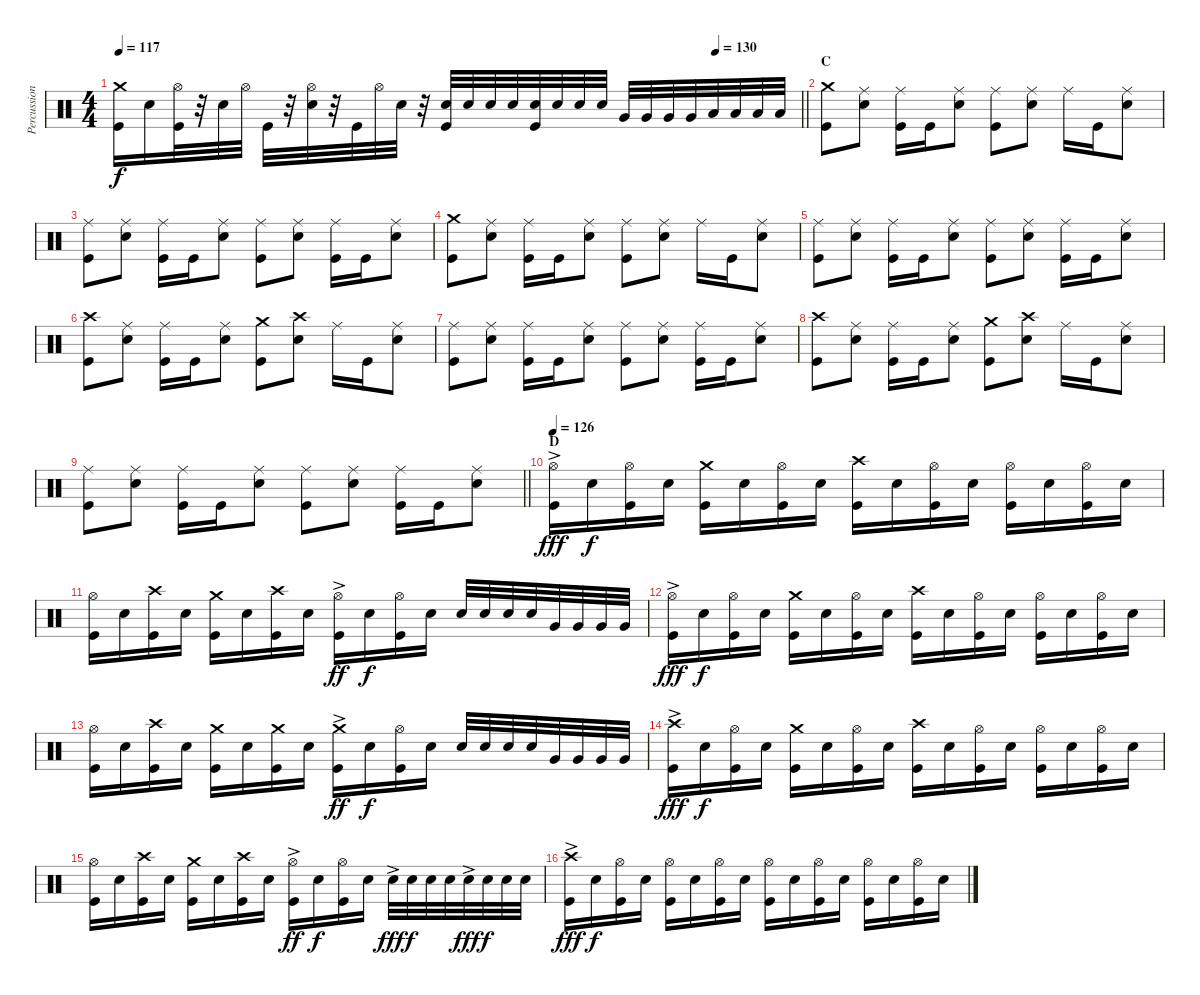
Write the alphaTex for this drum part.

\track ("Percussion" "Percussion") {instrument percussion}
\staff {score}
\articulation defaults
\ts (4 4)
\tempo 117
\tempo (130 0.875)
\clef neutral
\barLineRight lightlight
\ks c
("Kick (hit)" "Crash medium (hit)").16{dy f} "Snare (hit) 2".16 ("Kick (hit)" "Hi-Hat (open)").32 r.32 "Snare (hit) 2".32 "Hi-Hat (open)".32 "Kick (hit)".32 r.32 ("Snare (hit) 2" "Hi-Hat (open)").32 r.32 "Kick (hit)".32 "Hi-Hat (open)".32 "Snare (hit) 2".32 r.32 ("Kick (hit)" "Snare (hit) 2").32 "Snare (hit) 2".32 "Snare (hit) 2".32 "Snare (hit) 2".32 ("Kick (hit)" "Snare (hit) 2").32 "Snare (hit) 2".32 "Snare (hit) 2".32 "Snare (hit) 2".32 "Very Low Tom (hit)".32 "Very Low Tom (hit)".32 "Very Low Tom (hit)".32 "Very Low Tom (hit)".32 "Low Floor Tom (hit)".32 "Low Floor Tom (hit)".32 "Low Floor Tom (hit)".32 "Low Floor Tom (hit)".32 |
\section ("" "C")
("Kick (hit)" "Crash medium (hit)").8 ("Snare (hit) 2" "Ride (middle)").8 ("Kick (hit)" "Ride (middle)").16 "Kick (hit)".16 ("Snare (hit) 2" "Ride (middle)").8 ("Kick (hit)" "Ride (middle)").8 ("Snare (hit) 2" "Ride (middle)").8 "Ride (middle)".16 "Kick (hit)".16 ("Snare (hit) 2" "Ride (middle)").8 |
("Kick (hit)" "Ride (middle)").8 ("Snare (hit) 2" "Ride (middle)").8 ("Kick (hit)" "Ride (middle)").16 "Kick (hit)".16 ("Snare (hit) 2" "Ride (middle)").8 ("Kick (hit)" "Ride (middle)").8 ("Snare (hit) 2" "Ride (middle)").8 ("Kick (hit)" "Ride (middle)").16 "Kick (hit)".16 ("Snare (hit) 2" "Ride (middle)").8 |
("Kick (hit)" "Crash medium (hit)").8 ("Snare (hit) 2" "Ride (middle)").8 ("Kick (hit)" "Ride (middle)").16 "Kick (hit)".16 ("Snare (hit) 2" "Ride (middle)").8 ("Kick (hit)" "Ride (middle)").8 ("Snare (hit) 2" "Ride (middle)").8 "Ride (middle)".16 "Kick (hit)".16 ("Snare (hit) 2" "Ride (middle)").8 |
("Kick (hit)" "Ride (middle)").8 ("Snare (hit) 2" "Ride (middle)").8 ("Kick (hit)" "Ride (middle)").16 "Kick (hit)".16 ("Snare (hit) 2" "Ride (middle)").8 ("Kick (hit)" "Ride (middle)").8 ("Snare (hit) 2" "Ride (middle)").8 ("Kick (hit)" "Ride (middle)").16 "Kick (hit)".16 ("Snare (hit) 2" "Ride (middle)").8 |
("Kick (hit)" "Crash high (hit)").8 ("Snare (hit) 2" "Ride (middle)").8 ("Kick (hit)" "Ride (middle)").16 "Kick (hit)".16 ("Snare (hit) 2" "Ride (middle)").8 ("Kick (hit)" "Crash medium (hit)").8 ("Snare (hit) 2" "Crash high (hit)").8 "Ride (middle)".16 "Kick (hit)".16 ("Snare (hit) 2" "Ride (middle)").8 |
("Kick (hit)" "Ride (middle)").8 ("Snare (hit) 2" "Ride (middle)").8 ("Kick (hit)" "Ride (middle)").16 "Kick (hit)".16 ("Snare (hit) 2" "Ride (middle)").8 ("Kick (hit)" "Ride (middle)").8 ("Snare (hit) 2" "Ride (middle)").8 ("Kick (hit)" "Ride (middle)").16 "Kick (hit)".16 ("Snare (hit) 2" "Ride (middle)").8 |
("Kick (hit)" "Crash high (hit)").8 ("Snare (hit) 2" "Ride (middle)").8 ("Kick (hit)" "Ride (middle)").16 "Kick (hit)".16 ("Snare (hit) 2" "Ride (middle)").8 ("Kick (hit)" "Crash medium (hit)").8 ("Snare (hit) 2" "Crash high (hit)").8 "Ride (middle)".16 "Kick (hit)".16 ("Snare (hit) 2" "Ride (middle)").8 |
\barLineRight lightlight
("Kick (hit)" "Ride (middle)").8 ("Snare (hit) 2" "Ride (middle)").8 ("Kick (hit)" "Ride (middle)").16 "Kick (hit)".16 ("Snare (hit) 2" "Ride (middle)").8 ("Kick (hit)" "Ride (middle)").8 ("Snare (hit) 2" "Ride (middle)").8 ("Kick (hit)" "Ride (middle)").16 "Kick (hit)".16 ("Snare (hit) 2" "Ride (middle)").8 |
\section ("" "D")
\tempo 126
("Kick (hit)" "Hi-Hat (open)"{ac}).16{dy fff} "Snare (hit) 2".16{dy f} ("Kick (hit)" "Hi-Hat (open)").16 "Snare (hit) 2".16 ("Kick (hit)" "Crash medium (hit)").16 "Snare (hit) 2".16 ("Kick (hit)" "Hi-Hat (open)").16 "Snare (hit) 2".16 ("Kick (hit)" "Crash high (hit)").16 "Snare (hit) 2".16 ("Kick (hit)" "Hi-Hat (open)").16 "Snare (hit) 2".16 ("Kick (hit)" "Hi-Hat (open)").16 "Snare (hit) 2".16 ("Kick (hit)" "Hi-Hat (open)").16 "Snare (hit) 2".16 |
("Kick (hit)" "Hi-Hat (open)").16 "Snare (hit) 2".16 ("Kick (hit)" "Crash high (hit)").16 "Snare (hit) 2".16 ("Kick (hit)" "Crash medium (hit)").16 "Snare (hit) 2".16 ("Kick (hit)" "Crash high (hit)").16 "Snare (hit) 2".16 ("Kick (hit)" "Hi-Hat (open)"{ac}).16{dy ff} "Snare (hit) 2".16{dy f} ("Kick (hit)" "Hi-Hat (open)").16 "Snare (hit) 2".16 "Snare (hit) 2".32 "Snare (hit) 2".32 "Snare (hit) 2".32 "Snare (hit) 2".32 "Very Low Tom (hit)".32 "Very Low Tom (hit)".32 "Very Low Tom (hit)".32 "Very Low Tom (hit)".32 |
("Kick (hit)" "Hi-Hat (open)"{ac}).16{dy fff} "Snare (hit) 2".16{dy f} ("Kick (hit)" "Hi-Hat (open)").16 "Snare (hit) 2".16 ("Kick (hit)" "Crash medium (hit)").16 "Snare (hit) 2".16 ("Kick (hit)" "Hi-Hat (open)").16 "Snare (hit) 2".16 ("Kick (hit)" "Crash high (hit)").16 "Snare (hit) 2".16 ("Kick (hit)" "Hi-Hat (open)").16 "Snare (hit) 2".16 ("Kick (hit)" "Hi-Hat (open)").16 "Snare (hit) 2".16 ("Kick (hit)" "Hi-Hat (open)").16 "Snare (hit) 2".16 |
("Kick (hit)" "Hi-Hat (open)").16 "Snare (hit) 2".16 ("Kick (hit)" "Crash high (hit)").16 "Snare (hit) 2".16 ("Kick (hit)" "Crash medium (hit)").16 "Snare (hit) 2".16 ("Kick (hit)" "Crash medium (hit)").16 "Snare (hit) 2".16 ("Kick (hit)" "Crash medium (hit)"{ac}).16{dy ff} "Snare (hit) 2".16{dy f} ("Kick (hit)" "Hi-Hat (open)").16 "Snare (hit) 2".16 "Snare (hit) 2".32 "Snare (hit) 2".32 "Snare (hit) 2".32 "Snare (hit) 2".32 "Very Low Tom (hit)".32 "Very Low Tom (hit)".32 "Very Low Tom (hit)".32 "Very Low Tom (hit)".32 |
("Kick (hit)" "Crash high (hit)"{ac}).16{dy fff} "Snare (hit) 2".16{dy f} ("Kick (hit)" "Hi-Hat (open)").16 "Snare (hit) 2".16 ("Kick (hit)" "Crash medium (hit)").16 "Snare (hit) 2".16 ("Kick (hit)" "Hi-Hat (open)").16 "Snare (hit) 2".16 ("Kick (hit)" "Crash high (hit)").16 "Snare (hit) 2".16 ("Kick (hit)" "Hi-Hat (open)").16 "Snare (hit) 2".16 ("Kick (hit)" "Hi-Hat (open)").16 "Snare (hit) 2".16 ("Kick (hit)" "Hi-Hat (open)").16 "Snare (hit) 2".16 |
("Kick (hit)" "Hi-Hat (open)").16 "Snare (hit) 2".16 ("Kick (hit)" "Crash high (hit)").16 "Snare (hit) 2".16 ("Kick (hit)" "Crash medium (hit)").16 "Snare (hit) 2".16 ("Kick (hit)" "Crash high (hit)").16 "Snare (hit) 2".16 ("Kick (hit)" "Hi-Hat (open)"{ac}).16{dy ff} "Snare (hit) 2".16{dy f} ("Kick (hit)" "Hi-Hat (open)").16 "Snare (hit) 2".16 "Snare (hit) 2"{ac}.32{dy fff} "Snare (hit) 2".32{dy f} "Snare (hit) 2".32 "Snare (hit) 2".32 "Snare (hit) 2"{ac}.32{dy fff} "Snare (hit) 2".32{dy f} "Snare (hit) 2".32 "Snare (hit) 2".32 |
("Kick (hit)" "Crash high (hit)"{ac}).16{dy fff} "Snare (hit) 2".16{dy f} ("Kick (hit)" "Hi-Hat (open)").16 "Snare (hit) 2".16 ("Kick (hit)" "Hi-Hat (open)").16 "Snare (hit) 2".16 ("Kick (hit)" "Hi-Hat (open)").16 "Snare (hit) 2".16 ("Kick (hit)" "Hi-Hat (open)").16 "Snare (hit) 2".16 ("Kick (hit)" "Hi-Hat (open)").16 "Snare (hit) 2".16 ("Kick (hit)" "Hi-Hat (open)").16 "Snare (hit) 2".16 ("Kick (hit)" "Hi-Hat (open)").16 "Snare (hit) 2".16
